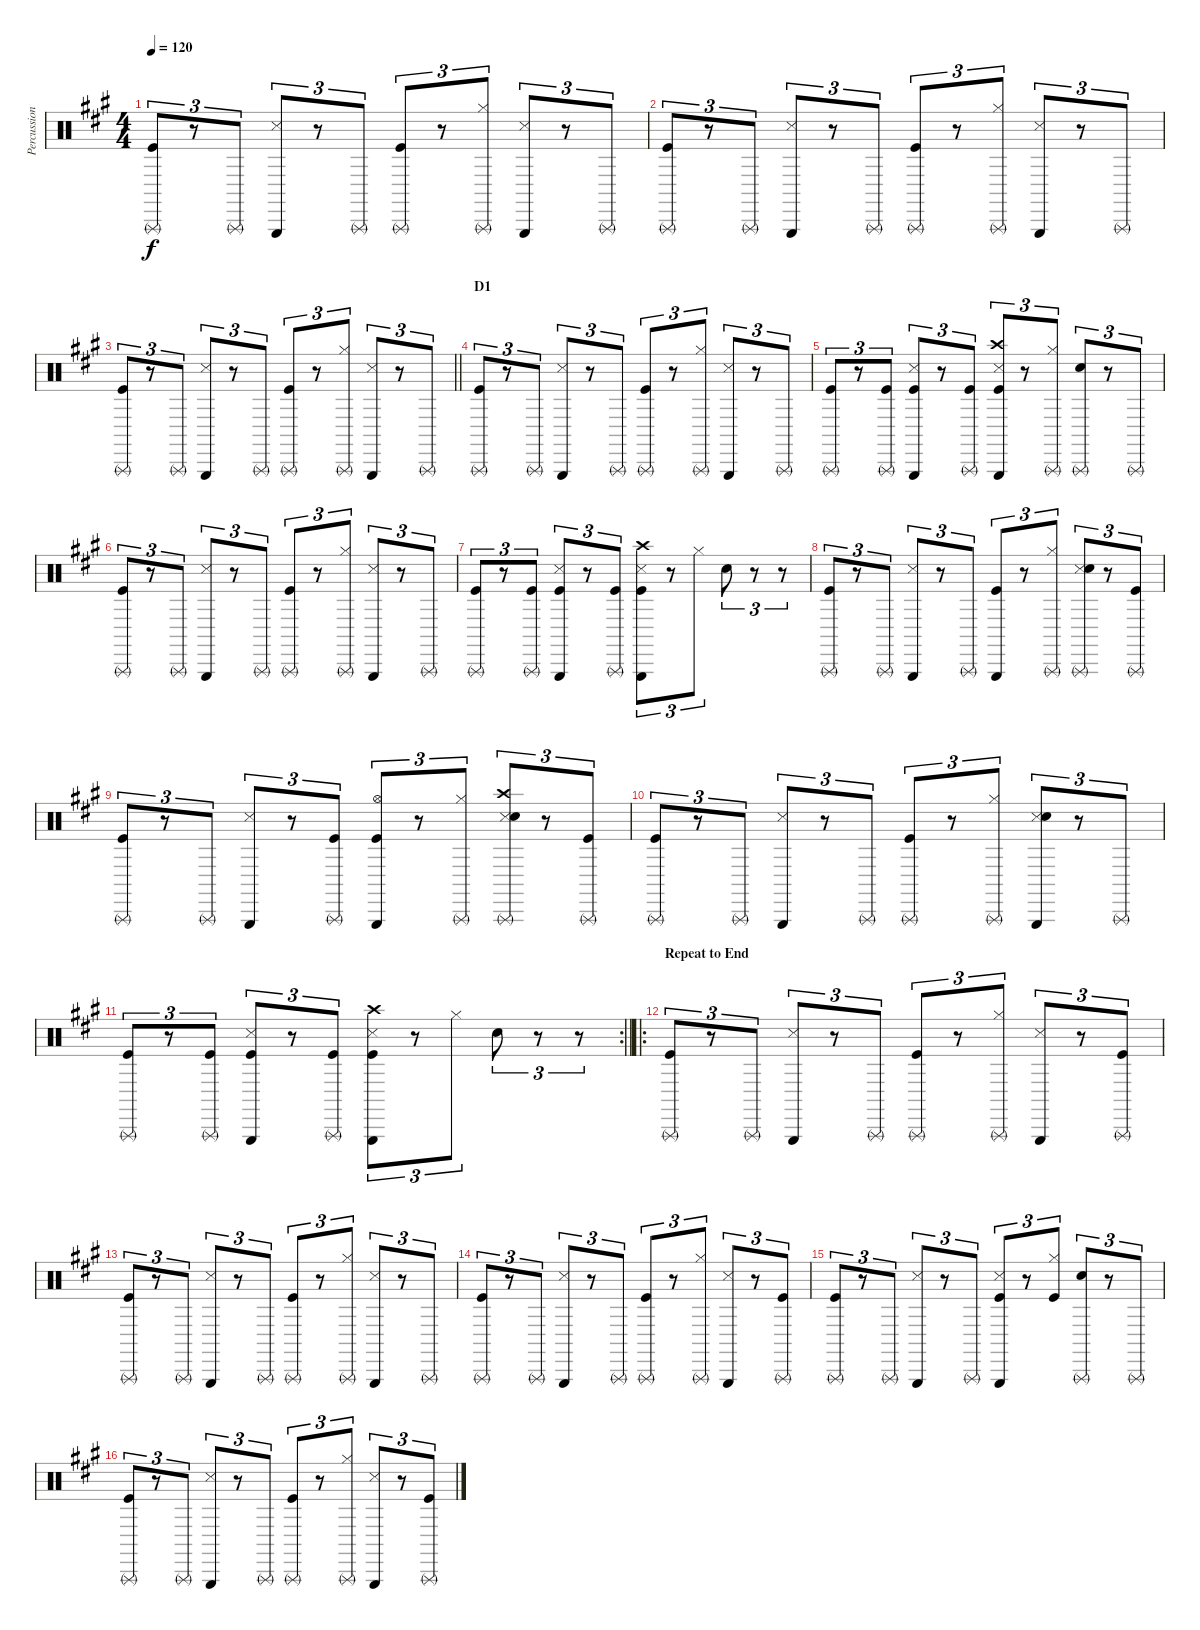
\track ("Percussion" "Percussion") {instrument percussion}
\staff {score}
\articulation defaults
\ts (4 4)
\tempo 120
\clef neutral
\ks a
("Kick (hit)" "Triangle (rnute)").8{tu (3 2) dy f} r.8{tu (3 2)} "Triangle (rnute)".8{tu (3 2)} ("Snare (side stick) 3" "Triangle (hit)").8{tu (3 2)} r.8{tu (3 2)} "Triangle (rnute)".8{tu (3 2)} ("Kick (hit)" "Triangle (rnute)").8{tu (3 2)} r.8{tu (3 2)} ("Hi-Hat (closed)" "Triangle (rnute)").8{tu (3 2)} ("Snare (side stick) 3" "Triangle (hit)").8{tu (3 2)} r.8{tu (3 2)} "Triangle (rnute)".8{tu (3 2)} |
("Kick (hit)" "Triangle (rnute)").8{tu (3 2)} r.8{tu (3 2)} "Triangle (rnute)".8{tu (3 2)} ("Snare (side stick) 3" "Triangle (hit)").8{tu (3 2)} r.8{tu (3 2)} "Triangle (rnute)".8{tu (3 2)} ("Kick (hit)" "Triangle (rnute)").8{tu (3 2)} r.8{tu (3 2)} ("Hi-Hat (closed)" "Triangle (rnute)").8{tu (3 2)} ("Snare (side stick) 3" "Triangle (hit)").8{tu (3 2)} r.8{tu (3 2)} "Triangle (rnute)".8{tu (3 2)} |
\barLineRight lightlight
("Kick (hit)" "Triangle (rnute)").8{tu (3 2)} r.8{tu (3 2)} "Triangle (rnute)".8{tu (3 2)} ("Snare (side stick) 3" "Triangle (hit)").8{tu (3 2)} r.8{tu (3 2)} "Triangle (rnute)".8{tu (3 2)} ("Kick (hit)" "Triangle (rnute)").8{tu (3 2)} r.8{tu (3 2)} ("Hi-Hat (closed)" "Triangle (rnute)").8{tu (3 2)} ("Snare (side stick) 3" "Triangle (hit)").8{tu (3 2)} r.8{tu (3 2)} "Triangle (rnute)".8{tu (3 2)} |
\section ("" "D1")
("Kick (hit)" "Triangle (rnute)").8{tu (3 2)} r.8{tu (3 2)} "Triangle (rnute)".8{tu (3 2)} ("Snare (side stick) 3" "Triangle (hit)").8{tu (3 2)} r.8{tu (3 2)} "Triangle (rnute)".8{tu (3 2)} ("Kick (hit)" "Triangle (rnute)").8{tu (3 2)} r.8{tu (3 2)} ("Hi-Hat (closed)" "Triangle (rnute)").8{tu (3 2)} ("Snare (side stick) 3" "Triangle (hit)").8{tu (3 2)} r.8{tu (3 2)} "Triangle (rnute)".8{tu (3 2)} |
("Kick (hit)" "Triangle (rnute)").8{tu (3 2)} r.8{tu (3 2)} ("Kick (hit)" "Triangle (rnute)").8{tu (3 2)} ("Snare (side stick) 3" "Kick (hit)" "Triangle (hit)").8{tu (3 2)} r.8{tu (3 2)} ("Kick (hit)" "Triangle (rnute)").8{tu (3 2)} ("Crash high (hit)" "Snare (side stick) 3" "Kick (hit)" "Triangle (hit)").8{tu (3 2)} r.8{tu (3 2)} ("Hi-Hat (closed)" "Triangle (rnute)").8{tu (3 2)} ("Hand Clap (hit)" "Triangle (rnute)").8{tu (3 2)} r.8{tu (3 2)} "Triangle (rnute)".8{tu (3 2)} |
("Kick (hit)" "Triangle (rnute)").8{tu (3 2)} r.8{tu (3 2)} "Triangle (rnute)".8{tu (3 2)} ("Snare (side stick) 3" "Triangle (hit)").8{tu (3 2)} r.8{tu (3 2)} "Triangle (rnute)".8{tu (3 2)} ("Kick (hit)" "Triangle (rnute)").8{tu (3 2)} r.8{tu (3 2)} ("Hi-Hat (closed)" "Triangle (rnute)").8{tu (3 2)} ("Snare (side stick) 3" "Triangle (hit)").8{tu (3 2)} r.8{tu (3 2)} "Triangle (rnute)".8{tu (3 2)} |
("Kick (hit)" "Triangle (rnute)").8{tu (3 2)} r.8{tu (3 2)} ("Kick (hit)" "Triangle (rnute)").8{tu (3 2)} ("Snare (side stick) 3" "Kick (hit)" "Triangle (hit)").8{tu (3 2)} r.8{tu (3 2)} ("Kick (hit)" "Triangle (rnute)").8{tu (3 2)} ("Crash high (hit)" "Snare (side stick) 3" "Kick (hit)" "Triangle (hit)").8{tu (3 2)} r.8{tu (3 2)} "Hi-Hat (closed)".8{tu (3 2)} "Hand Clap (hit)".8{tu (3 2)} r.8{tu (3 2)} r.8{tu (3 2)} |
("Kick (hit)" "Triangle (rnute)").8{tu (3 2)} r.8{tu (3 2)} "Triangle (rnute)".8{tu (3 2)} ("Snare (side stick) 3" "Triangle (hit)").8{tu (3 2)} r.8{tu (3 2)} "Triangle (rnute)".8{tu (3 2)} ("Kick (hit)" "Triangle (hit)").8{tu (3 2)} r.8{tu (3 2)} ("Hi-Hat (closed)" "Triangle (rnute)").8{tu (3 2)} ("Snare (side stick) 3" "Hand Clap (hit)" "Triangle (rnute)").8{tu (3 2)} r.8{tu (3 2)} ("Kick (hit)" "Triangle (rnute)").8{tu (3 2)} |
("Kick (hit)" "Triangle (rnute)").8{tu (3 2)} r.8{tu (3 2)} "Triangle (rnute)".8{tu (3 2)} ("Snare (side stick) 3" "Triangle (hit)").8{tu (3 2)} r.8{tu (3 2)} ("Kick (hit)" "Triangle (rnute)").8{tu (3 2)} ("Hi-Hat (open)" "Kick (hit)" "Triangle (hit)").8{tu (3 2)} r.8{tu (3 2)} ("Hi-Hat (closed)" "Triangle (rnute)").8{tu (3 2)} ("Crash high (hit)" "Snare (side stick) 3" "Hand Clap (hit)" "Triangle (rnute)").8{tu (3 2)} r.8{tu (3 2)} ("Kick (hit)" "Triangle (rnute)").8{tu (3 2)} |
("Kick (hit)" "Triangle (rnute)").8{tu (3 2)} r.8{tu (3 2)} "Triangle (rnute)".8{tu (3 2)} ("Snare (side stick) 3" "Triangle (hit)").8{tu (3 2)} r.8{tu (3 2)} "Triangle (rnute)".8{tu (3 2)} ("Kick (hit)" "Triangle (rnute)").8{tu (3 2)} r.8{tu (3 2)} ("Hi-Hat (closed)" "Triangle (rnute)").8{tu (3 2)} ("Snare (side stick) 3" "Hand Clap (hit)" "Triangle (hit)").8{tu (3 2)} r.8{tu (3 2)} "Triangle (rnute)".8{tu (3 2)} |
\rc 2
\barLineRight lightlight
("Kick (hit)" "Triangle (rnute)").8{tu (3 2)} r.8{tu (3 2)} ("Kick (hit)" "Triangle (rnute)").8{tu (3 2)} ("Snare (side stick) 3" "Kick (hit)" "Triangle (hit)").8{tu (3 2)} r.8{tu (3 2)} ("Kick (hit)" "Triangle (rnute)").8{tu (3 2)} ("Crash high (hit)" "Snare (side stick) 3" "Kick (hit)" "Triangle (hit)").8{tu (3 2)} r.8{tu (3 2)} "Hi-Hat (closed)".8{tu (3 2)} "Hand Clap (hit)".8{tu (3 2)} r.8{tu (3 2)} r.8{tu (3 2)} |
\ro
\section ("" "Repeat to End")
("Kick (hit)" "Triangle (rnute)").8{tu (3 2)} r.8{tu (3 2)} "Triangle (rnute)".8{tu (3 2)} ("Snare (side stick) 3" "Triangle (hit)").8{tu (3 2)} r.8{tu (3 2)} "Triangle (rnute)".8{tu (3 2)} ("Kick (hit)" "Triangle (rnute)").8{tu (3 2)} r.8{tu (3 2)} ("Hi-Hat (closed)" "Triangle (rnute)").8{tu (3 2)} ("Snare (side stick) 3" "Triangle (hit)").8{tu (3 2)} r.8{tu (3 2)} ("Kick (hit)" "Triangle (rnute)").8{tu (3 2)} |
("Kick (hit)" "Triangle (rnute)").8{tu (3 2)} r.8{tu (3 2)} "Triangle (rnute)".8{tu (3 2)} ("Snare (side stick) 3" "Triangle (hit)").8{tu (3 2)} r.8{tu (3 2)} "Triangle (rnute)".8{tu (3 2)} ("Kick (hit)" "Triangle (rnute)").8{tu (3 2)} r.8{tu (3 2)} ("Hi-Hat (closed)" "Triangle (rnute)").8{tu (3 2)} ("Snare (side stick) 3" "Triangle (hit)").8{tu (3 2)} r.8{tu (3 2)} "Triangle (rnute)".8{tu (3 2)} |
("Kick (hit)" "Triangle (rnute)").8{tu (3 2)} r.8{tu (3 2)} "Triangle (rnute)".8{tu (3 2)} ("Snare (side stick) 3" "Triangle (hit)").8{tu (3 2)} r.8{tu (3 2)} "Triangle (rnute)".8{tu (3 2)} ("Kick (hit)" "Triangle (rnute)").8{tu (3 2)} r.8{tu (3 2)} ("Hi-Hat (closed)" "Triangle (rnute)").8{tu (3 2)} ("Snare (side stick) 3" "Triangle (hit)").8{tu (3 2)} r.8{tu (3 2)} ("Kick (hit)" "Triangle (rnute)").8{tu (3 2)} |
("Kick (hit)" "Triangle (rnute)").8{tu (3 2)} r.8{tu (3 2)} "Triangle (rnute)".8{tu (3 2)} ("Snare (side stick) 3" "Triangle (hit)").8{tu (3 2)} r.8{tu (3 2)} "Triangle (rnute)".8{tu (3 2)} ("Snare (side stick) 3" "Kick (hit)" "Triangle (hit)").8{tu (3 2)} r.8{tu (3 2)} ("Hi-Hat (closed)" "Kick (hit)").8{tu (3 2)} ("Hand Clap (hit)" "Triangle (rnute)").8{tu (3 2)} r.8{tu (3 2)} "Triangle (rnute)".8{tu (3 2)} |
("Kick (hit)" "Triangle (rnute)").8{tu (3 2)} r.8{tu (3 2)} "Triangle (rnute)".8{tu (3 2)} ("Snare (side stick) 3" "Triangle (hit)").8{tu (3 2)} r.8{tu (3 2)} "Triangle (rnute)".8{tu (3 2)} ("Kick (hit)" "Triangle (rnute)").8{tu (3 2)} r.8{tu (3 2)} ("Hi-Hat (closed)" "Triangle (rnute)").8{tu (3 2)} ("Snare (side stick) 3" "Triangle (hit)").8{tu (3 2)} r.8{tu (3 2)} ("Kick (hit)" "Triangle (rnute)").8{tu (3 2)}
